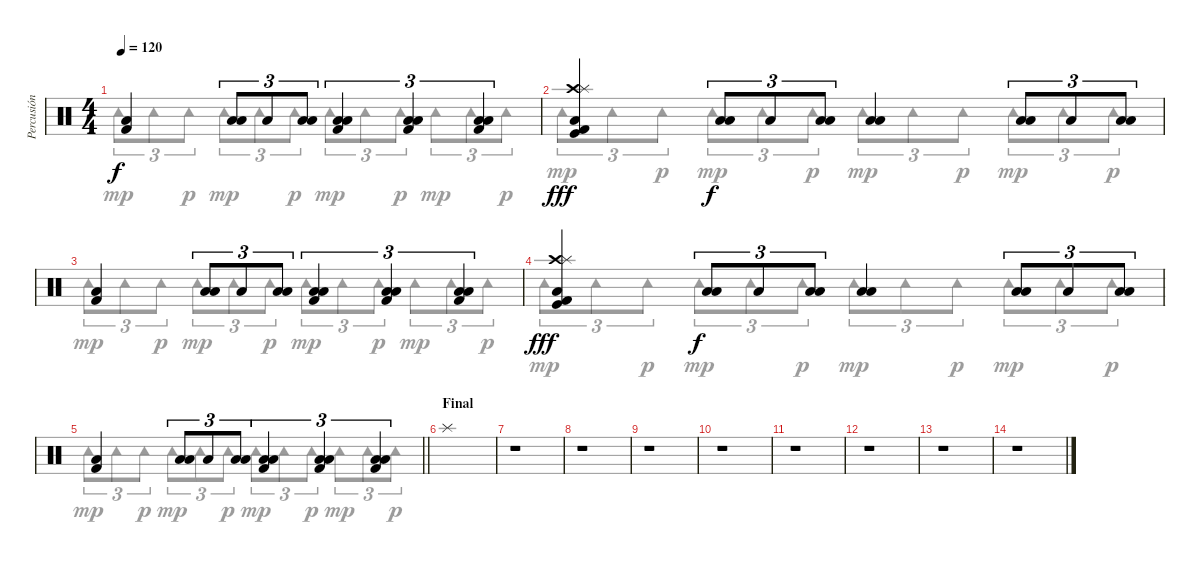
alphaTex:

\track ("Percusión" "Percusión") {instrument percussion}
\staff {score}
\articulation defaults
\voice
\ts (4 4)
\tempo 120
\clef neutral
\ks c
("Low Floor Tom (hit)" "Kick (hit) 2").4{dy f} ("Low Floor Tom (hit)" "Low Floor Tom (hit)").8{tu (3 2)} "Low Floor Tom (hit)".8{tu (3 2)} ("Low Floor Tom (hit)" "Low Floor Tom (hit)").8{tu (3 2)} ("Kick (hit) 2" "Low Floor Tom (hit)" "Low Floor Tom (hit)").4{tu (3 2)} ("Kick (hit) 2" "Low Floor Tom (hit)" "Low Floor Tom (hit)").4{tu (3 2)} ("Kick (hit) 2" "Low Floor Tom (hit)" "Low Floor Tom (hit)").4{tu (3 2)} |
("Crash high (hit)" "Splash (hit)" "Kick (hit)" "Low Floor Tom (hit)" "Kick (hit) 2").4{dy fff} ("Low Floor Tom (hit)" "Low Floor Tom (hit)").8{tu (3 2) dy f} "Low Floor Tom (hit)".8{tu (3 2)} ("Low Floor Tom (hit)" "Low Floor Tom (hit)").8{tu (3 2)} ("Low Floor Tom (hit)" "Low Floor Tom (hit)").4 ("Low Floor Tom (hit)" "Low Floor Tom (hit)").8{tu (3 2)} "Low Floor Tom (hit)".8{tu (3 2)} ("Low Floor Tom (hit)" "Low Floor Tom (hit)").8{tu (3 2)} |
("Low Floor Tom (hit)" "Kick (hit) 2").4 ("Low Floor Tom (hit)" "Low Floor Tom (hit)").8{tu (3 2)} "Low Floor Tom (hit)".8{tu (3 2)} ("Low Floor Tom (hit)" "Low Floor Tom (hit)").8{tu (3 2)} ("Kick (hit) 2" "Low Floor Tom (hit)" "Low Floor Tom (hit)").4{tu (3 2)} ("Kick (hit) 2" "Low Floor Tom (hit)" "Low Floor Tom (hit)").4{tu (3 2)} ("Kick (hit) 2" "Low Floor Tom (hit)" "Low Floor Tom (hit)").4{tu (3 2)} |
("Crash high (hit)" "Splash (hit)" "Kick (hit)" "Low Floor Tom (hit)" "Kick (hit) 2").4{dy fff} ("Low Floor Tom (hit)" "Low Floor Tom (hit)").8{tu (3 2) dy f} "Low Floor Tom (hit)".8{tu (3 2)} ("Low Floor Tom (hit)" "Low Floor Tom (hit)").8{tu (3 2)} ("Low Floor Tom (hit)" "Low Floor Tom (hit)").4 ("Low Floor Tom (hit)" "Low Floor Tom (hit)").8{tu (3 2)} "Low Floor Tom (hit)".8{tu (3 2)} ("Low Floor Tom (hit)" "Low Floor Tom (hit)").8{tu (3 2)} |
\barLineRight lightlight
("Low Floor Tom (hit)" "Kick (hit) 2").4 ("Low Floor Tom (hit)" "Low Floor Tom (hit)").8{tu (3 2)} "Low Floor Tom (hit)".8{tu (3 2)} ("Low Floor Tom (hit)" "Low Floor Tom (hit)").8{tu (3 2)} ("Kick (hit) 2" "Low Floor Tom (hit)" "Low Floor Tom (hit)").4{tu (3 2)} ("Kick (hit) 2" "Low Floor Tom (hit)" "Low Floor Tom (hit)").4{tu (3 2)} ("Kick (hit) 2" "Low Floor Tom (hit)" "Low Floor Tom (hit)").4{tu (3 2)} |
\section ("" "Final")
"Splash (hit)".1 |
r.1 |
r.1 |
r.1 |
r.1 |
r.1 |
r.1 |
r.1 |
r.1
\voice
\clef neutral
\ottava regular
\simile none
\ks c "Tambourine (hit)".8{tu (3 2) dy mp} "Tambourine (hit)".8{tu (3 2)} "Tambourine (hit)".8{tu (3 2) dy p} "Tambourine (hit)".8{tu (3 2) dy mp} "Tambourine (hit)".8{tu (3 2)} "Tambourine (hit)".8{tu (3 2) dy p} "Tambourine (hit)".8{tu (3 2) dy mp} "Tambourine (hit)".8{tu (3 2)} "Tambourine (hit)".8{tu (3 2) dy p} "Tambourine (hit)".8{tu (3 2) dy mp} "Tambourine (hit)".8{tu (3 2)} "Tambourine (hit)".8{tu (3 2) dy p}
|
"Tambourine (hit)".8{tu (3 2) dy mp} "Tambourine (hit)".8{tu (3 2)} "Tambourine (hit)".8{tu (3 2) dy p} "Tambourine (hit)".8{tu (3 2) dy mp} "Tambourine (hit)".8{tu (3 2)} "Tambourine (hit)".8{tu (3 2) dy p} "Tambourine (hit)".8{tu (3 2) dy mp} "Tambourine (hit)".8{tu (3 2)} "Tambourine (hit)".8{tu (3 2) dy p} "Tambourine (hit)".8{tu (3 2) dy mp} "Tambourine (hit)".8{tu (3 2)} "Tambourine (hit)".8{tu (3 2) dy p} |
"Tambourine (hit)".8{tu (3 2) dy mp} "Tambourine (hit)".8{tu (3 2)} "Tambourine (hit)".8{tu (3 2) dy p} "Tambourine (hit)".8{tu (3 2) dy mp} "Tambourine (hit)".8{tu (3 2)} "Tambourine (hit)".8{tu (3 2) dy p} "Tambourine (hit)".8{tu (3 2) dy mp} "Tambourine (hit)".8{tu (3 2)} "Tambourine (hit)".8{tu (3 2) dy p} "Tambourine (hit)".8{tu (3 2) dy mp} "Tambourine (hit)".8{tu (3 2)} "Tambourine (hit)".8{tu (3 2) dy p} |
"Tambourine (hit)".8{tu (3 2) dy mp} "Tambourine (hit)".8{tu (3 2)} "Tambourine (hit)".8{tu (3 2) dy p} "Tambourine (hit)".8{tu (3 2) dy mp} "Tambourine (hit)".8{tu (3 2)} "Tambourine (hit)".8{tu (3 2) dy p} "Tambourine (hit)".8{tu (3 2) dy mp} "Tambourine (hit)".8{tu (3 2)} "Tambourine (hit)".8{tu (3 2) dy p} "Tambourine (hit)".8{tu (3 2) dy mp} "Tambourine (hit)".8{tu (3 2)} "Tambourine (hit)".8{tu (3 2) dy p} |
\barLineRight lightlight "Tambourine (hit)".8{tu (3 2) dy mp} "Tambourine (hit)".8{tu (3 2)} "Tambourine (hit)".8{tu (3 2) dy p} "Tambourine (hit)".8{tu (3 2) dy mp} "Tambourine (hit)".8{tu (3 2)} "Tambourine (hit)".8{tu (3 2) dy p} "Tambourine (hit)".8{tu (3 2) dy mp} "Tambourine (hit)".8{tu (3 2)} "Tambourine (hit)".8{tu (3 2) dy p} "Tambourine (hit)".8{tu (3 2) dy mp} "Tambourine (hit)".8{tu (3 2)} "Tambourine (hit)".8{tu (3 2) dy p}
|
|
|
|
|
|
|
|
|
